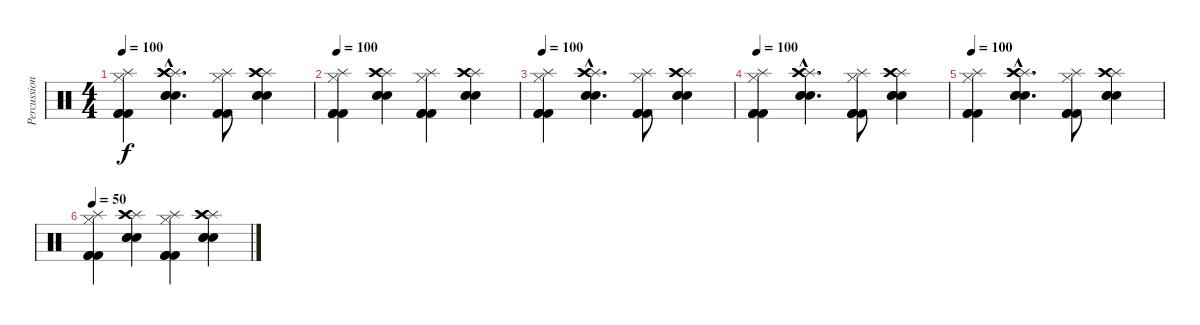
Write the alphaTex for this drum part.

\track ("Percussion" "Percussion") {instrument percussion}
\staff {score}
\articulation defaults
\ts (4 4)
\tempo 100
\clef neutral
\ks c
("Splash (hit)" "Hi-Hat (closed)" "Kick (hit) 2" "Kick (hit) 2" "Kick (hit) 2").4{dy f} ("Splash (hit)"{hac} "Crash high (hit)"{hac} "Crash high (hit)"{hac} "Snare (hit) 2"{hac} "Snare (hit) 2"{hac} "Snare (hit) 2"{hac}).4{d} ("Splash (hit)" "Hi-Hat (closed)" "Kick (hit) 2" "Kick (hit) 2" "Kick (hit) 2").8 ("Splash (hit)" "Crash high (hit)" "Crash high (hit)" "Snare (hit) 2" "Snare (hit) 2" "Snare (hit) 2").4 |
\tempo 100
("Splash (hit)" "Hi-Hat (closed)" "Kick (hit) 2" "Kick (hit) 2" "Kick (hit) 2").4 ("Splash (hit)" "Crash high (hit)" "Crash high (hit)" "Snare (hit) 2" "Snare (hit) 2" "Snare (hit) 2").4 ("Splash (hit)" "Hi-Hat (closed)" "Kick (hit) 2" "Kick (hit) 2" "Kick (hit) 2").4 ("Splash (hit)" "Crash high (hit)" "Crash high (hit)" "Snare (hit) 2" "Snare (hit) 2" "Snare (hit) 2").4 |
\tempo 100
("Splash (hit)" "Hi-Hat (closed)" "Kick (hit) 2" "Kick (hit) 2" "Kick (hit) 2").4 ("Splash (hit)"{hac} "Crash high (hit)"{hac} "Crash high (hit)"{hac} "Snare (hit) 2"{hac} "Snare (hit) 2"{hac} "Snare (hit) 2"{hac}).4{d} ("Splash (hit)" "Hi-Hat (closed)" "Kick (hit) 2" "Kick (hit) 2" "Kick (hit) 2").8 ("Splash (hit)" "Crash high (hit)" "Crash high (hit)" "Snare (hit) 2" "Snare (hit) 2" "Snare (hit) 2").4 |
\tempo 100
("Splash (hit)" "Hi-Hat (closed)" "Kick (hit) 2" "Kick (hit) 2" "Kick (hit) 2").4 ("Splash (hit)"{hac} "Crash high (hit)"{hac} "Crash high (hit)"{hac} "Snare (hit) 2"{hac} "Snare (hit) 2"{hac} "Snare (hit) 2"{hac}).4{d} ("Splash (hit)" "Hi-Hat (closed)" "Kick (hit) 2" "Kick (hit) 2" "Kick (hit) 2").8 ("Splash (hit)" "Crash high (hit)" "Crash high (hit)" "Snare (hit) 2" "Snare (hit) 2" "Snare (hit) 2").4 |
\tempo 100
("Splash (hit)" "Hi-Hat (closed)" "Kick (hit) 2" "Kick (hit) 2" "Kick (hit) 2").4 ("Splash (hit)"{hac} "Crash high (hit)"{hac} "Crash high (hit)"{hac} "Snare (hit) 2"{hac} "Snare (hit) 2"{hac} "Snare (hit) 2"{hac}).4{d} ("Splash (hit)" "Hi-Hat (closed)" "Kick (hit) 2" "Kick (hit) 2" "Kick (hit) 2").8 ("Splash (hit)" "Crash high (hit)" "Crash high (hit)" "Snare (hit) 2" "Snare (hit) 2" "Snare (hit) 2").4 |
\tempo 100
\tempo 50
("Splash (hit)" "Hi-Hat (closed)" "Kick (hit) 2" "Kick (hit) 2" "Kick (hit) 2").4 ("Splash (hit)" "Crash high (hit)" "Crash high (hit)" "Snare (hit) 2" "Snare (hit) 2" "Snare (hit) 2").4 ("Splash (hit)" "Hi-Hat (closed)" "Kick (hit) 2" "Kick (hit) 2" "Kick (hit) 2").4 ("Splash (hit)" "Crash high (hit)" "Crash high (hit)" "Snare (hit) 2" "Snare (hit) 2" "Snare (hit) 2").4
